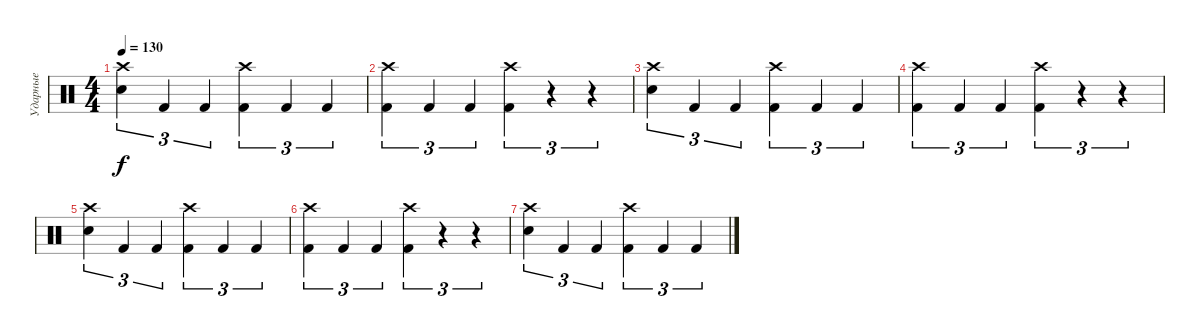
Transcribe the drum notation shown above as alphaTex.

\track ("Ударные" "Ударные") {instrument percussion}
\staff {score}
\articulation defaults
\ts (4 4)
\tempo 130
\clef neutral
\ks c
("Crash high (hit)" "Electric Snare (hit)").4{tu (3 2) dy f} "Kick (hit) 2".4{tu (3 2)} "Kick (hit) 2".4{tu (3 2)} ("Crash high (hit)" "Kick (hit) 2").4{tu (3 2)} "Kick (hit) 2".4{tu (3 2)} "Kick (hit) 2".4{tu (3 2)} |
("Crash high (hit)" "Kick (hit) 2").4{tu (3 2)} "Kick (hit) 2".4{tu (3 2)} "Kick (hit) 2".4{tu (3 2)} ("Crash high (hit)" "Kick (hit) 2").4{tu (3 2)} r.4{tu (3 2)} r.4{tu (3 2)} |
("Crash high (hit)" "Electric Snare (hit)").4{tu (3 2)} "Kick (hit) 2".4{tu (3 2)} "Kick (hit) 2".4{tu (3 2)} ("Crash high (hit)" "Kick (hit) 2").4{tu (3 2)} "Kick (hit) 2".4{tu (3 2)} "Kick (hit) 2".4{tu (3 2)} |
("Crash high (hit)" "Kick (hit) 2").4{tu (3 2)} "Kick (hit) 2".4{tu (3 2)} "Kick (hit) 2".4{tu (3 2)} ("Crash high (hit)" "Kick (hit) 2").4{tu (3 2)} r.4{tu (3 2)} r.4{tu (3 2)} |
("Crash high (hit)" "Electric Snare (hit)").4{tu (3 2)} "Kick (hit) 2".4{tu (3 2)} "Kick (hit) 2".4{tu (3 2)} ("Crash high (hit)" "Kick (hit) 2").4{tu (3 2)} "Kick (hit) 2".4{tu (3 2)} "Kick (hit) 2".4{tu (3 2)} |
("Crash high (hit)" "Kick (hit) 2").4{tu (3 2)} "Kick (hit) 2".4{tu (3 2)} "Kick (hit) 2".4{tu (3 2)} ("Crash high (hit)" "Kick (hit) 2").4{tu (3 2)} r.4{tu (3 2)} r.4{tu (3 2)} |
("Crash high (hit)" "Electric Snare (hit)").4{tu (3 2)} "Kick (hit) 2".4{tu (3 2)} "Kick (hit) 2".4{tu (3 2)} ("Crash high (hit)" "Kick (hit) 2").4{tu (3 2)} "Kick (hit) 2".4{tu (3 2)} "Kick (hit) 2".4{tu (3 2)}
